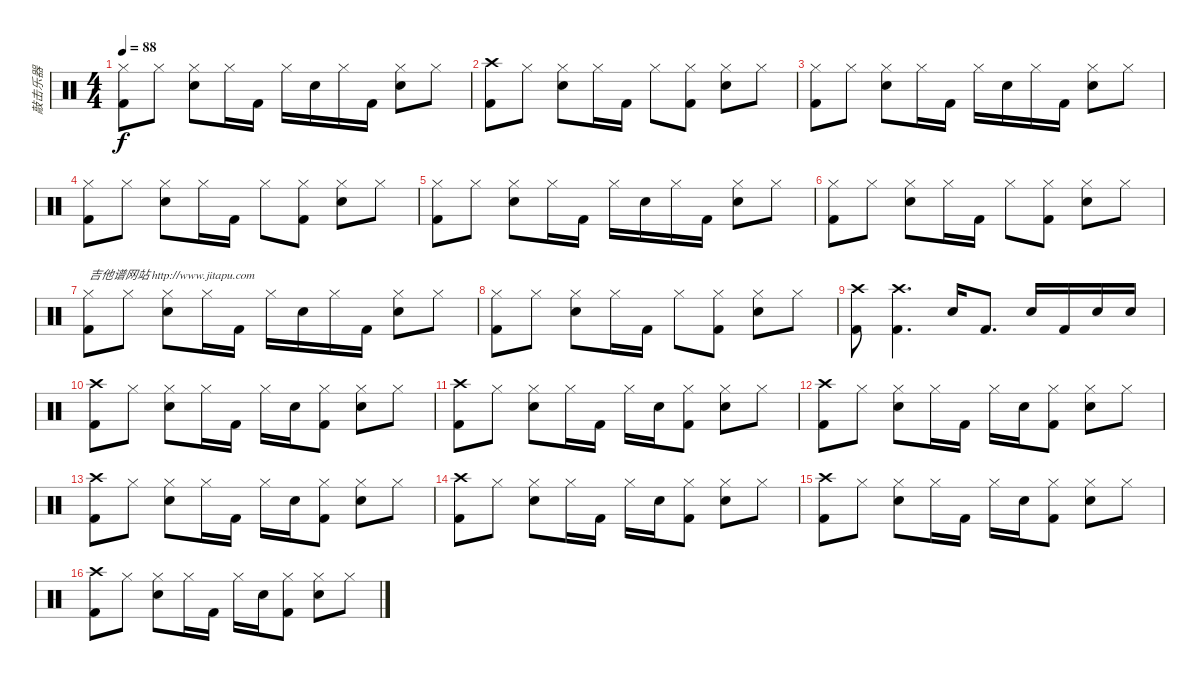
\track ("敲击乐器" "敲击乐器") {instrument percussion}
\staff {score}
\articulation defaults
\ts (4 4)
\tempo 88
\clef neutral
\ks c
("Hi-Hat (closed)" "Kick (hit) 2").8{dy f} "Hi-Hat (closed)".8 ("Hi-Hat (closed)" "Electric Snare (hit)").8 "Hi-Hat (closed)".16 "Kick (hit) 2".16 "Hi-Hat (closed)".16 "Electric Snare (hit)".16 "Hi-Hat (closed)".16 "Kick (hit) 2".16 ("Hi-Hat (closed)" "Electric Snare (hit)").8 "Hi-Hat (closed)".8 |
("Crash high (hit)" "Kick (hit) 2").8 "Hi-Hat (closed)".8 ("Hi-Hat (closed)" "Electric Snare (hit)").8 "Hi-Hat (closed)".16 "Kick (hit) 2".16 "Hi-Hat (closed)".8 ("Hi-Hat (closed)" "Kick (hit) 2").8 ("Hi-Hat (closed)" "Electric Snare (hit)").8 "Hi-Hat (closed)".8 |
("Hi-Hat (closed)" "Kick (hit) 2").8 "Hi-Hat (closed)".8 ("Hi-Hat (closed)" "Electric Snare (hit)").8 "Hi-Hat (closed)".16 "Kick (hit) 2".16 "Hi-Hat (closed)".16 "Electric Snare (hit)".16 "Hi-Hat (closed)".16 "Kick (hit) 2".16 ("Hi-Hat (closed)" "Electric Snare (hit)").8 "Hi-Hat (closed)".8 |
("Hi-Hat (closed)" "Kick (hit) 2").8 "Hi-Hat (closed)".8 ("Hi-Hat (closed)" "Electric Snare (hit)").8 "Hi-Hat (closed)".16 "Kick (hit) 2".16 "Hi-Hat (closed)".8 ("Hi-Hat (closed)" "Kick (hit) 2").8 ("Hi-Hat (closed)" "Electric Snare (hit)").8 "Hi-Hat (closed)".8 |
("Hi-Hat (closed)" "Kick (hit) 2").8 "Hi-Hat (closed)".8 ("Hi-Hat (closed)" "Electric Snare (hit)").8 "Hi-Hat (closed)".16 "Kick (hit) 2".16 "Hi-Hat (closed)".16 "Electric Snare (hit)".16 "Hi-Hat (closed)".16 "Kick (hit) 2".16 ("Hi-Hat (closed)" "Electric Snare (hit)").8 "Hi-Hat (closed)".8 |
("Hi-Hat (closed)" "Kick (hit) 2").8 "Hi-Hat (closed)".8 ("Hi-Hat (closed)" "Electric Snare (hit)").8 "Hi-Hat (closed)".16 "Kick (hit) 2".16 "Hi-Hat (closed)".8 ("Hi-Hat (closed)" "Kick (hit) 2").8 ("Hi-Hat (closed)" "Electric Snare (hit)").8 "Hi-Hat (closed)".8 |
("Hi-Hat (closed)" "Kick (hit) 2").8{txt "吉他谱网站 http://www.jitapu.com"} "Hi-Hat (closed)".8 ("Hi-Hat (closed)" "Electric Snare (hit)").8 "Hi-Hat (closed)".16 "Kick (hit) 2".16 "Hi-Hat (closed)".16 "Electric Snare (hit)".16 "Hi-Hat (closed)".16 "Kick (hit) 2".16 ("Hi-Hat (closed)" "Electric Snare (hit)").8 "Hi-Hat (closed)".8 |
("Hi-Hat (closed)" "Kick (hit) 2").8 "Hi-Hat (closed)".8 ("Hi-Hat (closed)" "Electric Snare (hit)").8 "Hi-Hat (closed)".16 "Kick (hit) 2".16 "Hi-Hat (closed)".8 ("Hi-Hat (closed)" "Kick (hit) 2").8 ("Hi-Hat (closed)" "Electric Snare (hit)").8 "Hi-Hat (closed)".8 |
("Crash high (hit)" "Kick (hit) 2").8 ("Crash high (hit)" "Kick (hit) 2").4{d} "Electric Snare (hit)".16 "Kick (hit) 2".8{d} "Electric Snare (hit)".16 "Kick (hit) 2".16 "Electric Snare (hit)".16 "Electric Snare (hit)".16 |
("Crash high (hit)" "Kick (hit) 2").8 "Hi-Hat (closed)".8 ("Hi-Hat (closed)" "Electric Snare (hit)").8 "Hi-Hat (closed)".16 "Kick (hit) 2".16 "Hi-Hat (closed)".16 "Electric Snare (hit)".16 ("Hi-Hat (closed)" "Kick (hit) 2").8 ("Hi-Hat (closed)" "Electric Snare (hit)").8 "Hi-Hat (closed)".8 |
("Crash high (hit)" "Kick (hit) 2").8 "Hi-Hat (closed)".8 ("Hi-Hat (closed)" "Electric Snare (hit)").8 "Hi-Hat (closed)".16 "Kick (hit) 2".16 "Hi-Hat (closed)".16 "Electric Snare (hit)".16 ("Hi-Hat (closed)" "Kick (hit) 2").8 ("Hi-Hat (closed)" "Electric Snare (hit)").8 "Hi-Hat (closed)".8 |
("Crash high (hit)" "Kick (hit) 2").8 "Hi-Hat (closed)".8 ("Hi-Hat (closed)" "Electric Snare (hit)").8 "Hi-Hat (closed)".16 "Kick (hit) 2".16 "Hi-Hat (closed)".16 "Electric Snare (hit)".16 ("Hi-Hat (closed)" "Kick (hit) 2").8 ("Hi-Hat (closed)" "Electric Snare (hit)").8 "Hi-Hat (closed)".8 |
("Crash high (hit)" "Kick (hit) 2").8 "Hi-Hat (closed)".8 ("Hi-Hat (closed)" "Electric Snare (hit)").8 "Hi-Hat (closed)".16 "Kick (hit) 2".16 "Hi-Hat (closed)".16 "Electric Snare (hit)".16 ("Hi-Hat (closed)" "Kick (hit) 2").8 ("Hi-Hat (closed)" "Electric Snare (hit)").8 "Hi-Hat (closed)".8 |
("Crash high (hit)" "Kick (hit) 2").8 "Hi-Hat (closed)".8 ("Hi-Hat (closed)" "Electric Snare (hit)").8 "Hi-Hat (closed)".16 "Kick (hit) 2".16 "Hi-Hat (closed)".16 "Electric Snare (hit)".16 ("Hi-Hat (closed)" "Kick (hit) 2").8 ("Hi-Hat (closed)" "Electric Snare (hit)").8 "Hi-Hat (closed)".8 |
("Crash high (hit)" "Kick (hit) 2").8 "Hi-Hat (closed)".8 ("Hi-Hat (closed)" "Electric Snare (hit)").8 "Hi-Hat (closed)".16 "Kick (hit) 2".16 "Hi-Hat (closed)".16 "Electric Snare (hit)".16 ("Hi-Hat (closed)" "Kick (hit) 2").8 ("Hi-Hat (closed)" "Electric Snare (hit)").8 "Hi-Hat (closed)".8 |
("Crash high (hit)" "Kick (hit) 2").8 "Hi-Hat (closed)".8 ("Hi-Hat (closed)" "Electric Snare (hit)").8 "Hi-Hat (closed)".16 "Kick (hit) 2".16 "Hi-Hat (closed)".16 "Electric Snare (hit)".16 ("Hi-Hat (closed)" "Kick (hit) 2").8 ("Hi-Hat (closed)" "Electric Snare (hit)").8 "Hi-Hat (closed)".8
